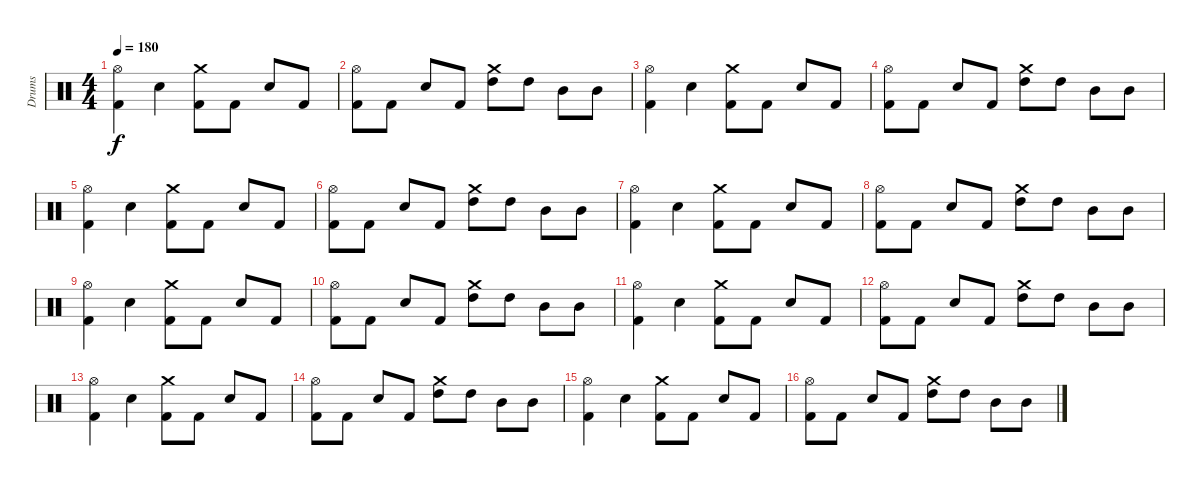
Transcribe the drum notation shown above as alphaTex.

\track ("Drums" "Drums") {instrument percussion}
\staff {score}
\articulation defaults
\ts (4 4)
\tempo 180
\clef neutral
\ks c
("Hi-Hat (open)" "Kick (hit) 2").4{dy f} "Electric Snare (hit)".4 ("Crash medium (hit)" "Kick (hit) 2").8 "Kick (hit) 2".8 "Electric Snare (hit)".8 "Kick (hit) 2".8 |
("Kick (hit) 2" "Hi-Hat (open)").8 "Kick (hit) 2".8 "Electric Snare (hit)".8 "Kick (hit) 2".8 ("Crash medium (hit)" "High Tom (hit)").8 "High Tom (hit)".8 "Mid Tom (hit)".8 "Mid Tom (hit)".8 |
("Hi-Hat (open)" "Kick (hit) 2").4 "Electric Snare (hit)".4 ("Crash medium (hit)" "Kick (hit) 2").8 "Kick (hit) 2".8 "Electric Snare (hit)".8 "Kick (hit) 2".8 |
("Kick (hit) 2" "Hi-Hat (open)").8 "Kick (hit) 2".8 "Electric Snare (hit)".8 "Kick (hit) 2".8 ("Crash medium (hit)" "High Tom (hit)").8 "High Tom (hit)".8 "Mid Tom (hit)".8 "Mid Tom (hit)".8 |
("Hi-Hat (open)" "Kick (hit) 2").4 "Electric Snare (hit)".4 ("Crash medium (hit)" "Kick (hit) 2").8 "Kick (hit) 2".8 "Electric Snare (hit)".8 "Kick (hit) 2".8 |
("Kick (hit) 2" "Hi-Hat (open)").8 "Kick (hit) 2".8 "Electric Snare (hit)".8 "Kick (hit) 2".8 ("Crash medium (hit)" "High Tom (hit)").8 "High Tom (hit)".8 "Mid Tom (hit)".8 "Mid Tom (hit)".8 |
("Hi-Hat (open)" "Kick (hit) 2").4 "Electric Snare (hit)".4 ("Crash medium (hit)" "Kick (hit) 2").8 "Kick (hit) 2".8 "Electric Snare (hit)".8 "Kick (hit) 2".8 |
("Kick (hit) 2" "Hi-Hat (open)").8 "Kick (hit) 2".8 "Electric Snare (hit)".8 "Kick (hit) 2".8 ("Crash medium (hit)" "High Tom (hit)").8 "High Tom (hit)".8 "Mid Tom (hit)".8 "Mid Tom (hit)".8 |
("Hi-Hat (open)" "Kick (hit) 2").4 "Electric Snare (hit)".4 ("Crash medium (hit)" "Kick (hit) 2").8 "Kick (hit) 2".8 "Electric Snare (hit)".8 "Kick (hit) 2".8 |
("Kick (hit) 2" "Hi-Hat (open)").8 "Kick (hit) 2".8 "Electric Snare (hit)".8 "Kick (hit) 2".8 ("Crash medium (hit)" "High Tom (hit)").8 "High Tom (hit)".8 "Mid Tom (hit)".8 "Mid Tom (hit)".8 |
("Hi-Hat (open)" "Kick (hit) 2").4 "Electric Snare (hit)".4 ("Crash medium (hit)" "Kick (hit) 2").8 "Kick (hit) 2".8 "Electric Snare (hit)".8 "Kick (hit) 2".8 |
("Kick (hit) 2" "Hi-Hat (open)").8 "Kick (hit) 2".8 "Electric Snare (hit)".8 "Kick (hit) 2".8 ("Crash medium (hit)" "High Tom (hit)").8 "High Tom (hit)".8 "Mid Tom (hit)".8 "Mid Tom (hit)".8 |
("Hi-Hat (open)" "Kick (hit) 2").4 "Electric Snare (hit)".4 ("Crash medium (hit)" "Kick (hit) 2").8 "Kick (hit) 2".8 "Electric Snare (hit)".8 "Kick (hit) 2".8 |
("Kick (hit) 2" "Hi-Hat (open)").8 "Kick (hit) 2".8 "Electric Snare (hit)".8 "Kick (hit) 2".8 ("Crash medium (hit)" "High Tom (hit)").8 "High Tom (hit)".8 "Mid Tom (hit)".8 "Mid Tom (hit)".8 |
("Hi-Hat (open)" "Kick (hit) 2").4 "Electric Snare (hit)".4 ("Crash medium (hit)" "Kick (hit) 2").8 "Kick (hit) 2".8 "Electric Snare (hit)".8 "Kick (hit) 2".8 |
("Kick (hit) 2" "Hi-Hat (open)").8 "Kick (hit) 2".8 "Electric Snare (hit)".8 "Kick (hit) 2".8 ("Crash medium (hit)" "High Tom (hit)").8 "High Tom (hit)".8 "Mid Tom (hit)".8 "Mid Tom (hit)".8
